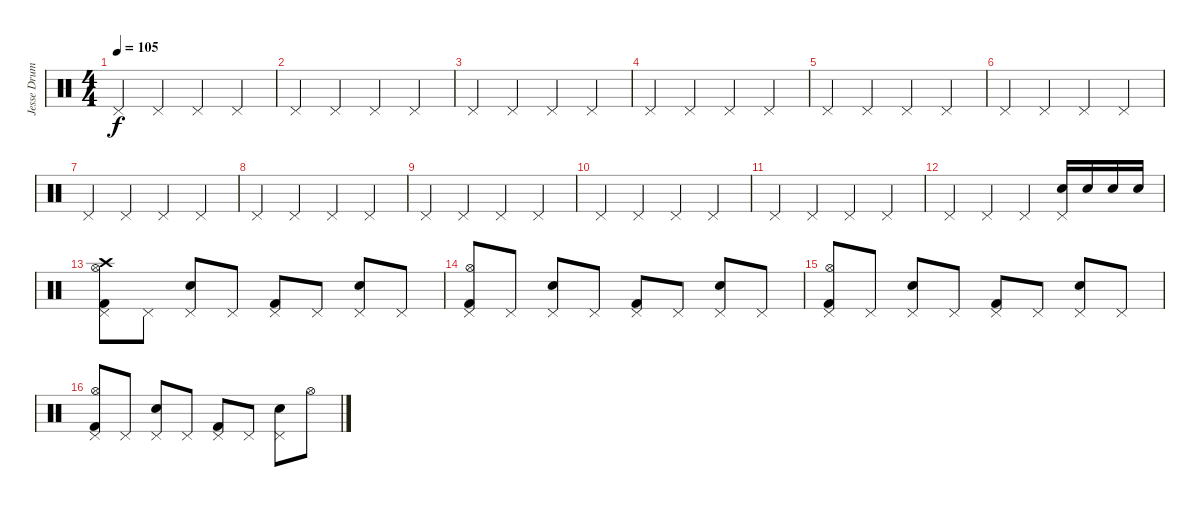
\track ("Jesse Drums" "Jesse Drum") {instrument percussion}
\staff {score}
\articulation defaults
\ts (4 4)
\tempo 105
\clef neutral
\ks c "Pedal Hi-Hat (hit)".4{dy f} "Pedal Hi-Hat (hit)".4 "Pedal Hi-Hat (hit)".4 "Pedal Hi-Hat (hit)".4
|
"Pedal Hi-Hat (hit)".4 "Pedal Hi-Hat (hit)".4 "Pedal Hi-Hat (hit)".4 "Pedal Hi-Hat (hit)".4 |
"Pedal Hi-Hat (hit)".4 "Pedal Hi-Hat (hit)".4 "Pedal Hi-Hat (hit)".4 "Pedal Hi-Hat (hit)".4 |
"Pedal Hi-Hat (hit)".4 "Pedal Hi-Hat (hit)".4 "Pedal Hi-Hat (hit)".4 "Pedal Hi-Hat (hit)".4 |
"Pedal Hi-Hat (hit)".4 "Pedal Hi-Hat (hit)".4 "Pedal Hi-Hat (hit)".4 "Pedal Hi-Hat (hit)".4 |
"Pedal Hi-Hat (hit)".4 "Pedal Hi-Hat (hit)".4 "Pedal Hi-Hat (hit)".4 "Pedal Hi-Hat (hit)".4 |
"Pedal Hi-Hat (hit)".4 "Pedal Hi-Hat (hit)".4 "Pedal Hi-Hat (hit)".4 "Pedal Hi-Hat (hit)".4 |
"Pedal Hi-Hat (hit)".4 "Pedal Hi-Hat (hit)".4 "Pedal Hi-Hat (hit)".4 "Pedal Hi-Hat (hit)".4 |
"Pedal Hi-Hat (hit)".4 "Pedal Hi-Hat (hit)".4 "Pedal Hi-Hat (hit)".4 "Pedal Hi-Hat (hit)".4 |
"Pedal Hi-Hat (hit)".4 "Pedal Hi-Hat (hit)".4 "Pedal Hi-Hat (hit)".4 "Pedal Hi-Hat (hit)".4 |
"Pedal Hi-Hat (hit)".4 "Pedal Hi-Hat (hit)".4 "Pedal Hi-Hat (hit)".4 "Pedal Hi-Hat (hit)".4 |
"Pedal Hi-Hat (hit)".4 "Pedal Hi-Hat (hit)".4 "Pedal Hi-Hat (hit)".4 ("Pedal Hi-Hat (hit)" "Electric Snare (hit)").16 "Electric Snare (hit)".16 "Electric Snare (hit)".16 "Electric Snare (hit)".16 |
("Pedal Hi-Hat (hit)" "Hi-Hat (open)" "Kick (hit) 2" "Crash high (hit)").8 "Pedal Hi-Hat (hit)".8 ("Pedal Hi-Hat (hit)" "Electric Snare (hit)").8 "Pedal Hi-Hat (hit)".8 ("Pedal Hi-Hat (hit)" "Kick (hit) 2").8 "Pedal Hi-Hat (hit)".8 ("Pedal Hi-Hat (hit)" "Electric Snare (hit)").8 "Pedal Hi-Hat (hit)".8 |
("Pedal Hi-Hat (hit)" "Hi-Hat (open)" "Kick (hit) 2").8 "Pedal Hi-Hat (hit)".8 ("Pedal Hi-Hat (hit)" "Electric Snare (hit)").8 "Pedal Hi-Hat (hit)".8 ("Pedal Hi-Hat (hit)" "Kick (hit) 2").8 "Pedal Hi-Hat (hit)".8 ("Pedal Hi-Hat (hit)" "Electric Snare (hit)").8 "Pedal Hi-Hat (hit)".8 |
("Pedal Hi-Hat (hit)" "Hi-Hat (open)" "Kick (hit) 2").8 "Pedal Hi-Hat (hit)".8 ("Pedal Hi-Hat (hit)" "Electric Snare (hit)").8 "Pedal Hi-Hat (hit)".8 ("Pedal Hi-Hat (hit)" "Kick (hit) 2").8 "Pedal Hi-Hat (hit)".8 ("Pedal Hi-Hat (hit)" "Electric Snare (hit)").8 "Pedal Hi-Hat (hit)".8 |
("Pedal Hi-Hat (hit)" "Hi-Hat (open)" "Kick (hit) 2").8 "Pedal Hi-Hat (hit)".8 ("Pedal Hi-Hat (hit)" "Electric Snare (hit)").8 "Pedal Hi-Hat (hit)".8 ("Pedal Hi-Hat (hit)" "Kick (hit) 2").8 "Pedal Hi-Hat (hit)".8 ("Pedal Hi-Hat (hit)" "Electric Snare (hit)").8 "Hi-Hat (open)".8
